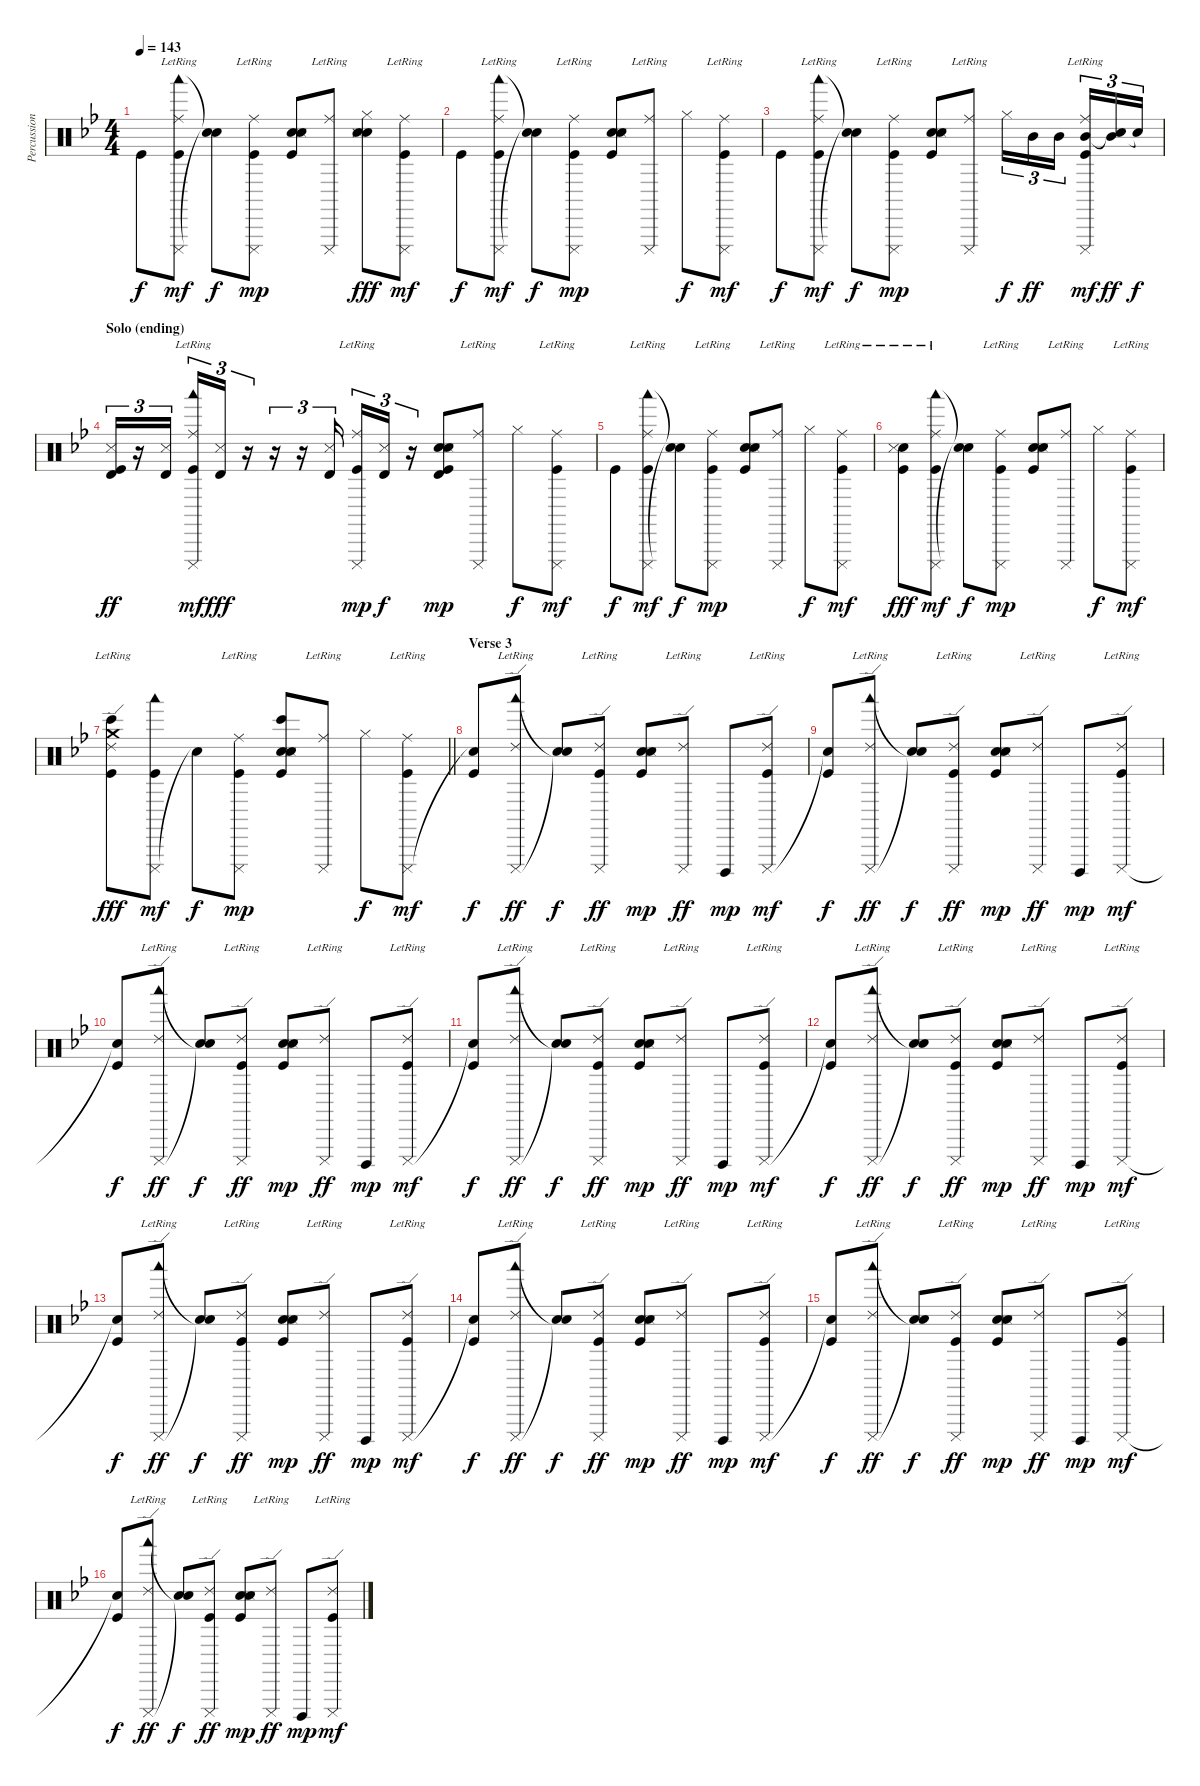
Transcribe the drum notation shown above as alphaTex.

\track ("Percussion" "Percussion") {instrument percussion}
\staff {score}
\articulation defaults
\ts (4 4)
\tempo 143
\clef neutral
\ks gminor "Kick (hit)".8{dy f}
("Cuica (mute)" "Woodblock low (hit)" "Ride (middle)"{lr} "Kick (hit)").8{dy mf} ("Snare (hit)"{t} "Snare (hit)"{t}).8{dy f} ("Cuica (mute)" "Ride (middle)"{lr} "Kick (hit)").8{dy mp} ("Snare (hit) 2" "Snare (side stick) 3" "Snare (hit) 2" "Kick (hit)").8 ("Cuica (mute)" "Ride (middle)"{lr}).8 ("Snare (hit) 2" "Snare (side stick) 3" "Snare (hit) 2" "Hi-Hat (closed)").8{dy fff} ("Cuica (mute)" "Ride (middle)"{lr} "Kick (hit)").8{dy mf} |
"Kick (hit)".8{dy f} ("Cuica (mute)" "Woodblock low (hit)" "Ride (middle)"{lr} "Kick (hit)").8{dy mf} ("Snare (hit)"{t} "Snare (hit)"{t}).8{dy f} ("Cuica (mute)" "Ride (middle)"{lr} "Kick (hit)").8{dy mp} ("Snare (hit) 2" "Snare (side stick) 3" "Snare (hit) 2" "Kick (hit)").8 ("Cuica (mute)" "Ride (middle)"{lr}).8 "Hi-Hat (closed)".8{dy f} ("Cuica (mute)" "Ride (middle)"{lr} "Kick (hit)").8{dy mf} |
"Kick (hit)".8{dy f} ("Cuica (mute)" "Woodblock low (hit)" "Ride (middle)"{lr} "Kick (hit)").8{dy mf} ("Snare (hit)"{t} "Snare (hit)"{t}).8{dy f} ("Cuica (mute)" "Ride (middle)"{lr} "Kick (hit)").8{dy mp} ("Snare (hit) 2" "Snare (side stick) 3" "Snare (hit) 2" "Kick (hit)").8 ("Cuica (mute)" "Ride (middle)"{lr}).8 "Hi-Hat (closed)".16{tu (3 2) dy f} "Mid Tom (hit)".16{tu (3 2) dy ff} "Mid Tom (hit)".16{tu (3 2)} ("Cuica (mute)" "Mid Tom (hit)" "Ride (middle)"{lr} "Kick (hit)").16{tu (3 2) dy mf} ("Mid Tom (hit)" "Snare (hit)"{t}).16{tu (3 2) dy ff} "Snare (hit)"{t}.16{tu (3 2) dy f} |
\section ("" "Solo (ending)")
("Snare (side stick) 3" "Timbale high (hit)" "Kick (hit)").16{tu (3 2) dy ff} r.16{tu (3 2)} ("Snare (side stick) 3" "Timbale high (hit)").16{tu (3 2)} ("Cuica (mute)" "Woodblock low (hit)" "Ride (middle)"{lr} "Kick (hit)").16{tu (3 2) dy mf} ("Snare (side stick) 3" "Timbale high (hit)").16{tu (3 2) dy fff} r.16{tu (3 2)} r.16{tu (3 2)} r.16{tu (3 2)} ("Snare (side stick) 3" "Timbale high (hit)").16{tu (3 2)} ("Cuica (mute)" "Ride (middle)"{lr} "Kick (hit)").16{tu (3 2) dy mp} ("Snare (side stick) 3" "Timbale high (hit)").16{tu (3 2) dy f} r.16{tu (3 2)} ("Snare (hit) 2" "Snare (side stick) 3" "Snare (hit) 2" "Timbale high (hit)" "Kick (hit)").8{dy mp} ("Cuica (mute)" "Ride (middle)"{lr}).8 "Hi-Hat (closed)".8{dy f} ("Cuica (mute)" "Ride (middle)"{lr} "Kick (hit)").8{dy mf} |
"Kick (hit)".8{dy f} ("Cuica (mute)" "Woodblock low (hit)" "Ride (middle)"{lr} "Kick (hit)").8{dy mf} ("Snare (hit)"{t} "Snare (hit)"{t}).8{dy f} ("Cuica (mute)" "Ride (middle)"{lr} "Kick (hit)").8{dy mp} ("Snare (hit) 2" "Snare (side stick) 3" "Snare (hit) 2" "Kick (hit)").8 ("Cuica (mute)" "Ride (middle)"{lr}).8 "Hi-Hat (closed)".8{dy f} ("Cuica (mute)" "Ride (middle)"{lr} "Kick (hit)").8{dy mf} |
("Electric Snare (hit)"{lr} "Snare (side stick) 3" "Kick (hit)").8{dy fff} ("Cuica (mute)" "Woodblock low (hit)" "Ride (middle)"{lr} "Kick (hit)").8{dy mf} ("Snare (hit)"{t} "Snare (hit)"{t}).8{dy f} ("Cuica (mute)" "Ride (middle)"{lr} "Kick (hit)").8{dy mp} ("Snare (hit) 2" "Snare (side stick) 3" "Snare (hit) 2" "Kick (hit)").8 ("Cuica (mute)" "Ride (middle)"{lr}).8 "Hi-Hat (closed)".8{dy f} ("Cuica (mute)" "Ride (middle)"{lr} "Kick (hit)").8{dy mf} |
\barLineRight lightlight
("Crash medium (hit)"{lr} "Bongo High (hit)" "Ride (edge) 2"{lr} "Kick (hit)").8{dy fff} ("Cuica (mute)" "Woodblock low (hit)" "Kick (hit)").8{dy mf} "Snare (hit)"{t}.8{dy f} ("Cuica (mute)" "Ride (middle)"{lr} "Kick (hit)").8{dy mp} ("Snare (hit) 2" "Snare (side stick) 3" "Snare (hit) 2" "Bongo High (hit)" "Kick (hit)").8 ("Cuica (mute)" "Ride (middle)"{lr}).8 "Hi-Hat (closed)".8{dy f} ("Cuica (mute)" "Ride (middle)"{lr} "Kick (hit)").8{dy mf} |
\section ("" "Verse 3")
("Snare (hit)"{t} "Kick (hit)").8{dy f} ("Cuica (mute)" "Woodblock low (hit)" "Ride (edge) 2"{lr}).8{dy ff} ("Snare (hit)"{t} "Snare (hit)"{t}).8{dy f} ("Cuica (mute)" "Ride (edge) 2"{lr} "Kick (hit)").8{dy ff} ("Snare (hit) 2" "Snare (side stick) 3" "Snare (hit) 2" "Kick (hit)").8{dy mp} ("Cuica (mute)" "Ride (edge) 2"{lr}).8{dy ff} "Cuica (open)".8{dy mp} ("Cuica (mute)" "Ride (edge) 2"{lr} "Kick (hit)").8{dy mf} |
("Snare (hit)"{t} "Kick (hit)").8{dy f} ("Cuica (mute)" "Woodblock low (hit)" "Ride (edge) 2"{lr}).8{dy ff} ("Snare (hit)"{t} "Snare (hit)"{t}).8{dy f} ("Cuica (mute)" "Ride (edge) 2"{lr} "Kick (hit)").8{dy ff} ("Snare (hit) 2" "Snare (side stick) 3" "Snare (hit) 2" "Kick (hit)").8{dy mp} ("Cuica (mute)" "Ride (edge) 2"{lr}).8{dy ff} "Cuica (open)".8{dy mp} ("Cuica (mute)" "Ride (edge) 2"{lr} "Kick (hit)").8{dy mf} |
("Snare (hit)"{t} "Kick (hit)").8{dy f} ("Cuica (mute)" "Woodblock low (hit)" "Ride (edge) 2"{lr}).8{dy ff} ("Snare (hit)"{t} "Snare (hit)"{t}).8{dy f} ("Cuica (mute)" "Ride (edge) 2"{lr} "Kick (hit)").8{dy ff} ("Snare (hit) 2" "Snare (side stick) 3" "Snare (hit) 2" "Kick (hit)").8{dy mp} ("Cuica (mute)" "Ride (edge) 2"{lr}).8{dy ff} "Cuica (open)".8{dy mp} ("Cuica (mute)" "Ride (edge) 2"{lr} "Kick (hit)").8{dy mf} |
("Snare (hit)"{t} "Kick (hit)").8{dy f} ("Cuica (mute)" "Woodblock low (hit)" "Ride (edge) 2"{lr}).8{dy ff} ("Snare (hit)"{t} "Snare (hit)"{t}).8{dy f} ("Cuica (mute)" "Ride (edge) 2"{lr} "Kick (hit)").8{dy ff} ("Snare (hit) 2" "Snare (side stick) 3" "Snare (hit) 2" "Kick (hit)").8{dy mp} ("Cuica (mute)" "Ride (edge) 2"{lr}).8{dy ff} "Cuica (open)".8{dy mp} ("Cuica (mute)" "Ride (edge) 2"{lr} "Kick (hit)").8{dy mf} |
("Snare (hit)"{t} "Kick (hit)").8{dy f} ("Cuica (mute)" "Woodblock low (hit)" "Ride (edge) 2"{lr}).8{dy ff} ("Snare (hit)"{t} "Snare (hit)"{t}).8{dy f} ("Cuica (mute)" "Ride (edge) 2"{lr} "Kick (hit)").8{dy ff} ("Snare (hit) 2" "Snare (side stick) 3" "Snare (hit) 2" "Kick (hit)").8{dy mp} ("Cuica (mute)" "Ride (edge) 2"{lr}).8{dy ff} "Cuica (open)".8{dy mp} ("Cuica (mute)" "Ride (edge) 2"{lr} "Kick (hit)").8{dy mf} |
("Snare (hit)"{t} "Kick (hit)").8{dy f} ("Cuica (mute)" "Woodblock low (hit)" "Ride (edge) 2"{lr}).8{dy ff} ("Snare (hit)"{t} "Snare (hit)"{t}).8{dy f} ("Cuica (mute)" "Ride (edge) 2"{lr} "Kick (hit)").8{dy ff} ("Snare (hit) 2" "Snare (side stick) 3" "Snare (hit) 2" "Kick (hit)").8{dy mp} ("Cuica (mute)" "Ride (edge) 2"{lr}).8{dy ff} "Cuica (open)".8{dy mp} ("Cuica (mute)" "Ride (edge) 2"{lr} "Kick (hit)").8{dy mf} |
("Snare (hit)"{t} "Kick (hit)").8{dy f} ("Cuica (mute)" "Woodblock low (hit)" "Ride (edge) 2"{lr}).8{dy ff} ("Snare (hit)"{t} "Snare (hit)"{t}).8{dy f} ("Cuica (mute)" "Ride (edge) 2"{lr} "Kick (hit)").8{dy ff} ("Snare (hit) 2" "Snare (side stick) 3" "Snare (hit) 2" "Kick (hit)").8{dy mp} ("Cuica (mute)" "Ride (edge) 2"{lr}).8{dy ff} "Cuica (open)".8{dy mp} ("Cuica (mute)" "Ride (edge) 2"{lr} "Kick (hit)").8{dy mf} |
("Snare (hit)"{t} "Kick (hit)").8{dy f} ("Cuica (mute)" "Woodblock low (hit)" "Ride (edge) 2"{lr}).8{dy ff} ("Snare (hit)"{t} "Snare (hit)"{t}).8{dy f} ("Cuica (mute)" "Ride (edge) 2"{lr} "Kick (hit)").8{dy ff} ("Snare (hit) 2" "Snare (side stick) 3" "Snare (hit) 2" "Kick (hit)").8{dy mp} ("Cuica (mute)" "Ride (edge) 2"{lr}).8{dy ff} "Cuica (open)".8{dy mp} ("Cuica (mute)" "Ride (edge) 2"{lr} "Kick (hit)").8{dy mf} |
("Snare (hit)"{t} "Kick (hit)").8{dy f} ("Cuica (mute)" "Woodblock low (hit)" "Ride (edge) 2"{lr}).8{dy ff} ("Snare (hit)"{t} "Snare (hit)"{t}).8{dy f} ("Cuica (mute)" "Ride (edge) 2"{lr} "Kick (hit)").8{dy ff} ("Snare (hit) 2" "Snare (side stick) 3" "Snare (hit) 2" "Kick (hit)").8{dy mp} ("Cuica (mute)" "Ride (edge) 2"{lr}).8{dy ff} "Cuica (open)".8{dy mp} ("Cuica (mute)" "Ride (edge) 2"{lr} "Kick (hit)").8{dy mf}
